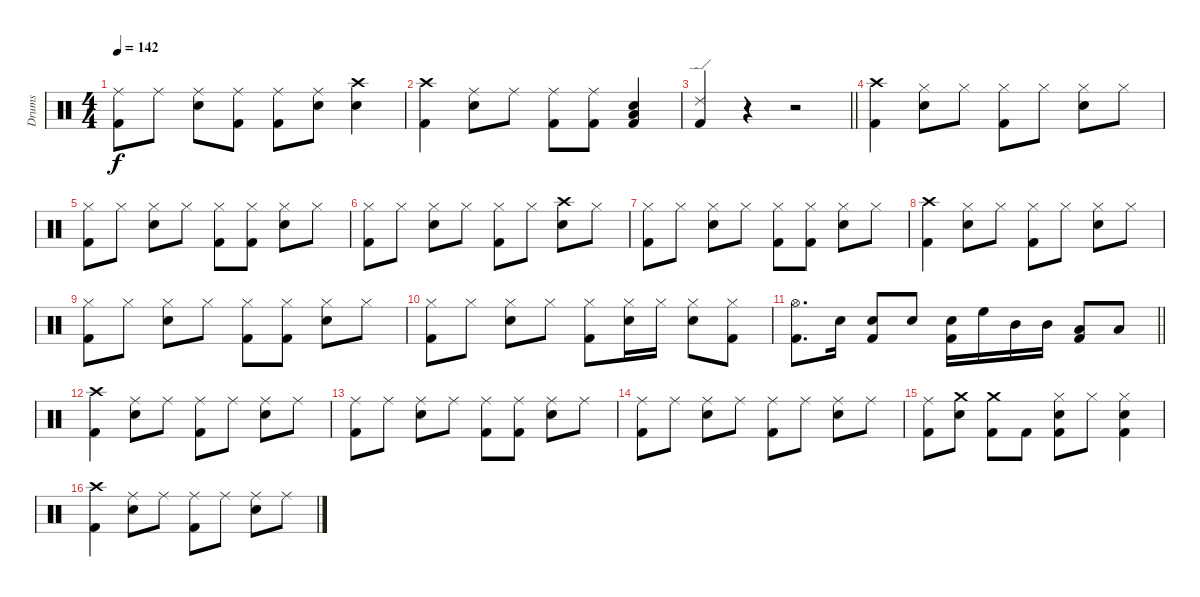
\track ("Drums" "Drums") {instrument percussion}
\staff {score}
\articulation defaults
\ts (4 4)
\tempo 142
\clef neutral
\ks c
("Ride (middle)" "Kick (hit) 2").8{dy f} "Ride (middle)".8 ("Ride (middle)" "Snare (hit) 2").8 ("Ride (middle)" "Kick (hit) 2").8 ("Ride (middle)" "Kick (hit) 2").8 ("Ride (middle)" "Snare (hit) 2").8 ("Crash high (hit)" "Snare (hit) 2").4 |
("Crash high (hit)" "Kick (hit) 2").4 ("Ride (middle)" "Snare (hit) 2").8 "Ride (middle)".8 ("Ride (middle)" "Kick (hit) 2").8 ("Ride (middle)" "Kick (hit) 2").8 ("Snare (hit) 2" "Low Tom (hit)" "Kick (hit) 2").4 |
\barLineRight lightlight
("Ride (edge) 2" "Kick (hit) 2").4 r.4 r.2 |
("Crash high (hit)" "Kick (hit) 2").4 ("Hi-Hat (closed)" "Snare (hit) 2").8 "Hi-Hat (closed)".8 ("Hi-Hat (closed)" "Kick (hit) 2").8 "Hi-Hat (closed)".8 ("Hi-Hat (closed)" "Snare (hit) 2").8 "Hi-Hat (closed)".8 |
("Hi-Hat (closed)" "Kick (hit) 2").8 "Hi-Hat (closed)".8 ("Hi-Hat (closed)" "Snare (hit) 2").8 "Hi-Hat (closed)".8 ("Hi-Hat (closed)" "Kick (hit) 2").8 ("Hi-Hat (closed)" "Kick (hit) 2").8 ("Hi-Hat (closed)" "Snare (hit) 2").8 "Hi-Hat (closed)".8 |
("Hi-Hat (closed)" "Kick (hit) 2").8 "Hi-Hat (closed)".8 ("Hi-Hat (closed)" "Snare (hit) 2").8 "Hi-Hat (closed)".8 ("Hi-Hat (closed)" "Kick (hit) 2").8 "Hi-Hat (closed)".8 ("Crash high (hit)" "Snare (hit) 2").8 "Hi-Hat (closed)".8 |
("Hi-Hat (closed)" "Kick (hit) 2").8 "Hi-Hat (closed)".8 ("Hi-Hat (closed)" "Snare (hit) 2").8 "Hi-Hat (closed)".8 ("Hi-Hat (closed)" "Kick (hit) 2").8 ("Hi-Hat (closed)" "Kick (hit) 2").8 ("Hi-Hat (closed)" "Snare (hit) 2").8 "Hi-Hat (closed)".8 |
("Crash high (hit)" "Kick (hit) 2").4 ("Hi-Hat (closed)" "Snare (hit) 2").8 "Hi-Hat (closed)".8 ("Hi-Hat (closed)" "Kick (hit) 2").8 "Hi-Hat (closed)".8 ("Hi-Hat (closed)" "Snare (hit) 2").8 "Hi-Hat (closed)".8 |
("Hi-Hat (closed)" "Kick (hit) 2").8 "Hi-Hat (closed)".8 ("Hi-Hat (closed)" "Snare (hit) 2").8 "Hi-Hat (closed)".8 ("Hi-Hat (closed)" "Kick (hit) 2").8 ("Hi-Hat (closed)" "Kick (hit) 2").8 ("Hi-Hat (closed)" "Snare (hit) 2").8 "Hi-Hat (closed)".8 |
("Hi-Hat (closed)" "Kick (hit) 2").8 "Hi-Hat (closed)".8 ("Hi-Hat (closed)" "Snare (hit) 2").8 "Hi-Hat (closed)".8 ("Hi-Hat (closed)" "Kick (hit) 2").8 ("Hi-Hat (closed)" "Snare (hit) 2").16 "Hi-Hat (closed)".16 ("Hi-Hat (closed)" "Snare (hit) 2").8 ("Hi-Hat (closed)" "Kick (hit) 2").8 |
\barLineRight lightlight
("Hi-Hat (open)" "Kick (hit) 2").8{d} "Snare (hit) 2".16 ("Snare (hit) 2" "Kick (hit) 2").8 "Snare (hit) 2".8 ("Snare (hit) 2" "Kick (hit) 2").16 "High Floor Tom (hit)".16 "Mid Tom (hit)".16 "Mid Tom (hit)".16 ("Low Tom (hit)" "Kick (hit) 2").8 "Low Tom (hit)".8 |
("Crash high (hit)" "Kick (hit) 2").4 ("Ride (middle)" "Snare (hit) 2").8 "Ride (middle)".8 ("Ride (middle)" "Kick (hit) 2").8 "Ride (middle)".8 ("Ride (middle)" "Snare (hit) 2").8 "Ride (middle)".8 |
("Ride (middle)" "Kick (hit) 2").8 "Ride (middle)".8 ("Ride (middle)" "Snare (hit) 2").8 "Ride (middle)".8 ("Ride (middle)" "Kick (hit) 2").8 ("Ride (middle)" "Kick (hit) 2").8 ("Ride (middle)" "Snare (hit) 2").8 "Ride (middle)".8 |
("Ride (middle)" "Kick (hit) 2").8 "Ride (middle)".8 ("Ride (middle)" "Snare (hit) 2").8 "Ride (middle)".8 ("Ride (middle)" "Kick (hit) 2").8 "Ride (middle)".8 ("Ride (middle)" "Snare (hit) 2").8 "Ride (middle)".8 |
("Ride (middle)" "Kick (hit) 2").8 ("Crash medium (hit)" "Snare (hit) 2").8 ("Crash medium (hit)" "Kick (hit) 2").8 "Kick (hit) 2".8 ("Hi-Hat (closed)" "Snare (hit) 2" "Kick (hit) 2").8 "Hi-Hat (closed)".8 ("Hi-Hat (closed)" "Snare (hit) 2" "Kick (hit) 2").4 |
("Crash high (hit)" "Kick (hit) 2").4 ("Ride (middle)" "Snare (hit) 2").8 "Ride (middle)".8 ("Ride (middle)" "Kick (hit) 2").8 "Ride (middle)".8 ("Ride (middle)" "Snare (hit) 2").8 "Ride (middle)".8
